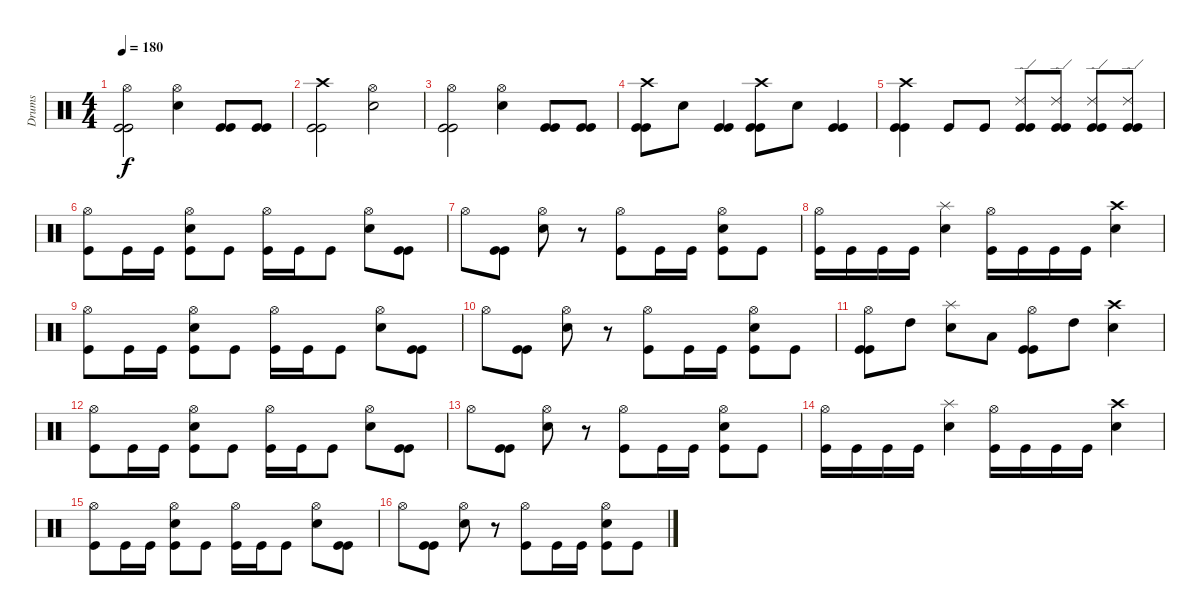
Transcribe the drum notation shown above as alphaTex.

\track ("Drums" "Drums") {instrument percussion}
\staff {score}
\articulation defaults
\ts (4 4)
\tempo 180
\clef neutral
\ks c
("Hi-Hat (open)" "Kick (hit)" "Kick (hit)").2{dy f} ("Hi-Hat (open)" "Snare (hit) 2").4 ("Kick (hit)" "Kick (hit)").8 ("Kick (hit)" "Kick (hit)").8 |
("Crash high (hit)" "Kick (hit)" "Kick (hit)").2 ("Hi-Hat (open)" "Snare (hit) 2").2 |
("Hi-Hat (open)" "Kick (hit)" "Kick (hit)").2 ("Hi-Hat (open)" "Snare (hit) 2").4 ("Kick (hit)" "Kick (hit)").8 ("Kick (hit)" "Kick (hit)").8 |
("Crash high (hit)" "Kick (hit)" "Kick (hit)").8 "Snare (hit) 2".8 ("Kick (hit)" "Kick (hit)").4 ("Crash high (hit)" "Kick (hit)" "Kick (hit)").8 "Snare (hit) 2".8 ("Kick (hit)" "Kick (hit)").4 |
("Crash high (hit)" "Kick (hit)" "Kick (hit)").4 "Kick (hit)".8 "Kick (hit)".8 ("Ride (edge) 2" "Kick (hit)" "Kick (hit)").8 ("Ride (edge) 2" "Kick (hit)" "Kick (hit)").8 ("Ride (edge) 2" "Kick (hit)" "Kick (hit)").8 ("Ride (edge) 2" "Kick (hit)" "Kick (hit)").8 |
("Hi-Hat (open)" "Kick (hit)").8 "Kick (hit)".16 "Kick (hit)".16 ("Hi-Hat (open)" "Snare (hit) 2" "Kick (hit)").8 "Kick (hit)".8 ("Hi-Hat (open)" "Kick (hit)").16 "Kick (hit)".16 "Kick (hit)".8 ("Hi-Hat (open)" "Snare (hit) 2").8 ("Kick (hit)" "Kick (hit)").8 |
"Hi-Hat (open)".8 ("Kick (hit)" "Kick (hit)").8 ("Hi-Hat (open)" "Snare (hit) 2").8 r.8 ("Hi-Hat (open)" "Kick (hit)").8 "Kick (hit)".16 "Kick (hit)".16 ("Hi-Hat (open)" "Snare (hit) 2" "Kick (hit)").8 "Kick (hit)".8 |
("Hi-Hat (open)" "Kick (hit)").16 "Kick (hit)".16 "Kick (hit)".16 "Kick (hit)".16 ("Splash (hit)" "Snare (hit) 2").4 ("Hi-Hat (open)" "Kick (hit)").16 "Kick (hit)".16 "Kick (hit)".16 "Kick (hit)".16 ("Crash high (hit)" "Snare (hit) 2").4 |
("Hi-Hat (open)" "Kick (hit)").8 "Kick (hit)".16 "Kick (hit)".16 ("Hi-Hat (open)" "Snare (hit) 2" "Kick (hit)").8 "Kick (hit)".8 ("Hi-Hat (open)" "Kick (hit)").16 "Kick (hit)".16 "Kick (hit)".8 ("Hi-Hat (open)" "Snare (hit) 2").8 ("Kick (hit)" "Kick (hit)").8 |
"Hi-Hat (open)".8 ("Kick (hit)" "Kick (hit)").8 ("Hi-Hat (open)" "Snare (hit) 2").8 r.8 ("Hi-Hat (open)" "Kick (hit)").8 "Kick (hit)".16 "Kick (hit)".16 ("Hi-Hat (open)" "Snare (hit) 2" "Kick (hit)").8 "Kick (hit)".8 |
("Hi-Hat (open)" "Kick (hit)" "Kick (hit)").8 "High Tom (hit)".8 ("Splash (hit)" "Snare (hit) 2").8 "Low Tom (hit)".8 ("Hi-Hat (open)" "Kick (hit)" "Kick (hit)").8 "High Tom (hit)".8 ("Crash high (hit)" "Snare (hit) 2").4 |
("Hi-Hat (open)" "Kick (hit)").8 "Kick (hit)".16 "Kick (hit)".16 ("Hi-Hat (open)" "Snare (hit) 2" "Kick (hit)").8 "Kick (hit)".8 ("Hi-Hat (open)" "Kick (hit)").16 "Kick (hit)".16 "Kick (hit)".8 ("Hi-Hat (open)" "Snare (hit) 2").8 ("Kick (hit)" "Kick (hit)").8 |
"Hi-Hat (open)".8 ("Kick (hit)" "Kick (hit)").8 ("Hi-Hat (open)" "Snare (hit) 2").8 r.8 ("Hi-Hat (open)" "Kick (hit)").8 "Kick (hit)".16 "Kick (hit)".16 ("Hi-Hat (open)" "Snare (hit) 2" "Kick (hit)").8 "Kick (hit)".8 |
("Hi-Hat (open)" "Kick (hit)").16 "Kick (hit)".16 "Kick (hit)".16 "Kick (hit)".16 ("Splash (hit)" "Snare (hit) 2").4 ("Hi-Hat (open)" "Kick (hit)").16 "Kick (hit)".16 "Kick (hit)".16 "Kick (hit)".16 ("Crash high (hit)" "Snare (hit) 2").4 |
("Hi-Hat (open)" "Kick (hit)").8 "Kick (hit)".16 "Kick (hit)".16 ("Hi-Hat (open)" "Snare (hit) 2" "Kick (hit)").8 "Kick (hit)".8 ("Hi-Hat (open)" "Kick (hit)").16 "Kick (hit)".16 "Kick (hit)".8 ("Hi-Hat (open)" "Snare (hit) 2").8 ("Kick (hit)" "Kick (hit)").8 |
"Hi-Hat (open)".8 ("Kick (hit)" "Kick (hit)").8 ("Hi-Hat (open)" "Snare (hit) 2").8 r.8 ("Hi-Hat (open)" "Kick (hit)").8 "Kick (hit)".16 "Kick (hit)".16 ("Hi-Hat (open)" "Snare (hit) 2" "Kick (hit)").8 "Kick (hit)".8
